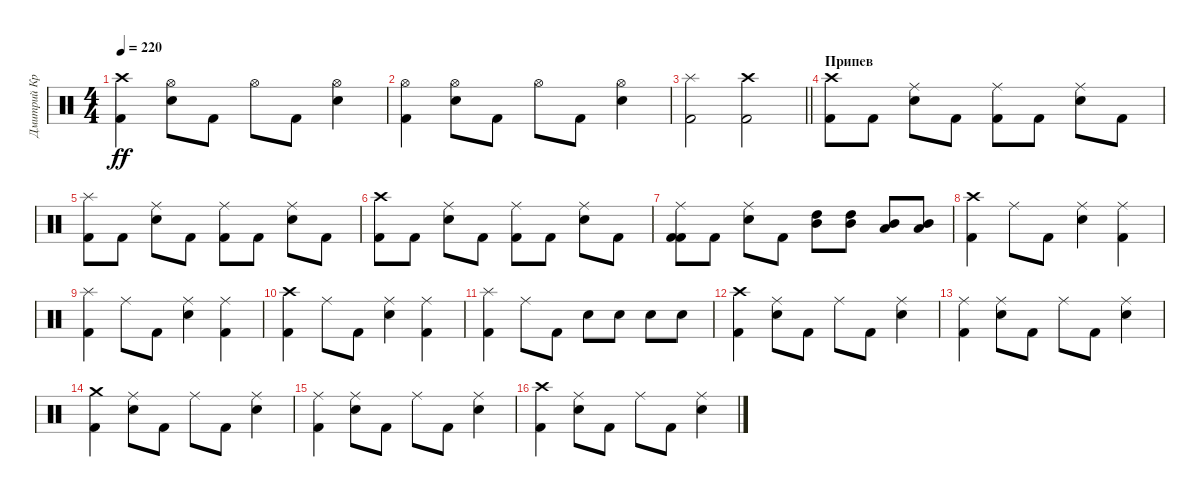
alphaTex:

\track ("Дмитрий Кривенков" "Дмитрий Кр") {instrument percussion}
\staff {score}
\articulation defaults
\ts (4 4)
\tempo 220
\clef neutral
\ks c
("Crash high (hit)" "Kick (hit) 2").4{dy ff} ("Hi-Hat (open)" "Snare (hit) 2").8 "Kick (hit) 2".8 "Hi-Hat (open)".8 "Kick (hit) 2".8 ("Hi-Hat (open)" "Snare (hit) 2").4 |
("Kick (hit) 2" "Hi-Hat (open)").4 ("Snare (hit) 2" "Hi-Hat (open)").8 "Kick (hit) 2".8 "Hi-Hat (open)".8 "Kick (hit) 2".8 ("Hi-Hat (open)" "Snare (hit) 2").4 |
\barLineRight lightlight
("Splash (hit)" "Kick (hit) 2").2 ("Crash high (hit)" "Kick (hit) 2").2 |
\section ("" "Припев")
("Crash high (hit)" "Kick (hit) 2").8 "Kick (hit) 2".8 ("Ride (middle)" "Snare (hit) 2").8 "Kick (hit) 2".8 ("Ride (middle)" "Kick (hit) 2").8 "Kick (hit) 2".8 ("Snare (hit) 2" "Ride (middle)").8 "Kick (hit) 2".8 |
("Kick (hit) 2" "Splash (hit)").8 "Kick (hit) 2".8 ("Snare (hit) 2" "Ride (middle)").8 "Kick (hit) 2".8 ("Kick (hit) 2" "Ride (middle)").8 "Kick (hit) 2".8 ("Snare (hit) 2" "Ride (middle)").8 "Kick (hit) 2".8 |
("Crash high (hit)" "Kick (hit) 2").8 "Kick (hit) 2".8 ("Ride (middle)" "Snare (hit) 2").8 "Kick (hit) 2".8 ("Ride (middle)" "Kick (hit) 2").8 "Kick (hit) 2".8 ("Snare (hit) 2" "Ride (middle)").8 "Kick (hit) 2".8 |
("Ride (middle)" "Kick (hit) 2" "Kick (hit) 2").8 "Kick (hit) 2".8 ("Ride (middle)" "Snare (hit) 2").8 "Kick (hit) 2".8 ("Mid Tom (hit)" "High Tom (hit)").8 ("Mid Tom (hit)" "High Tom (hit)").8 ("Low Tom (hit)" "Mid Tom (hit)").8 ("Low Tom (hit)" "Mid Tom (hit)").8 |
("Kick (hit) 2" "Crash high (hit)").4 "Ride (middle)".8 "Kick (hit) 2".8 ("Snare (hit) 2" "Ride (middle)").4 ("Kick (hit) 2" "Ride (middle)").4 |
("Splash (hit)" "Kick (hit) 2").4 "Ride (middle)".8 "Kick (hit) 2".8 ("Ride (middle)" "Snare (hit) 2").4 ("Ride (middle)" "Kick (hit) 2").4 |
("Kick (hit) 2" "Crash high (hit)").4 "Ride (middle)".8 "Kick (hit) 2".8 ("Snare (hit) 2" "Ride (middle)").4 ("Kick (hit) 2" "Ride (middle)").4 |
("Splash (hit)" "Kick (hit) 2").4 "Ride (middle)".8 "Kick (hit) 2".8 "Snare (hit) 2".8 "Snare (hit) 2".8 "Snare (hit) 2".8 "Snare (hit) 2".8 |
("Crash high (hit)" "Kick (hit) 2").4 ("Ride (middle)" "Snare (hit) 2").8 "Kick (hit) 2".8 "Ride (middle)".8 "Kick (hit) 2".8 ("Ride (middle)" "Snare (hit) 2").4 |
("Kick (hit) 2" "Ride (middle)").4 ("Snare (hit) 2" "Ride (middle)").8 "Kick (hit) 2".8 "Ride (middle)".8 "Kick (hit) 2".8 ("Snare (hit) 2" "Ride (middle)").4 |
("Crash medium (hit)" "Kick (hit) 2").4 ("Ride (middle)" "Snare (hit) 2").8 "Kick (hit) 2".8 "Ride (middle)".8 "Kick (hit) 2".8 ("Ride (middle)" "Snare (hit) 2").4 |
("Kick (hit) 2" "Ride (middle)").4 ("Snare (hit) 2" "Ride (middle)").8 "Kick (hit) 2".8 "Ride (middle)".8 "Kick (hit) 2".8 ("Snare (hit) 2" "Ride (middle)").4 |
("Crash high (hit)" "Kick (hit) 2").4 ("Ride (middle)" "Snare (hit) 2").8 "Kick (hit) 2".8 "Ride (middle)".8 "Kick (hit) 2".8 ("Ride (middle)" "Snare (hit) 2").4
